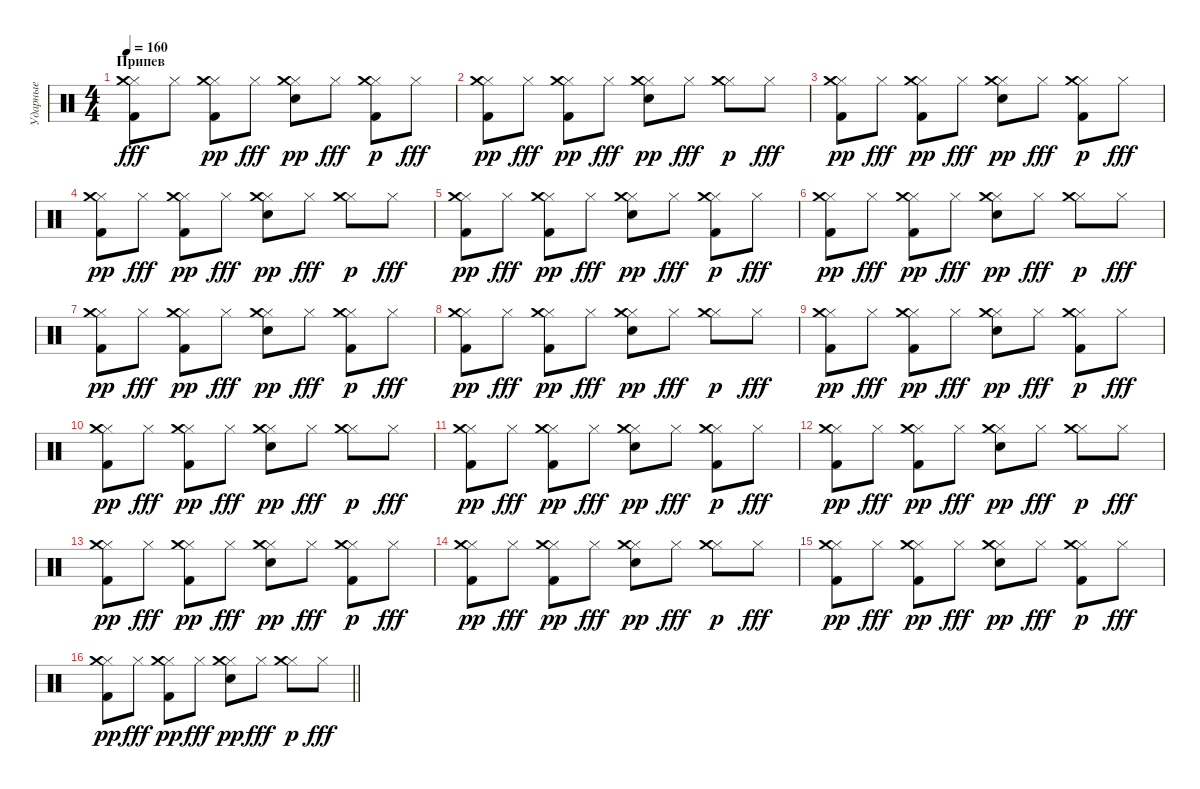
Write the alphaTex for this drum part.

\track ("Ударные" "Ударные") {instrument percussion}
\staff {score}
\articulation defaults
\ts (4 4)
\section ("" "Припев")
\tempo 160
\clef neutral
\ks c
("Hi-Hat (closed)" "Kick (hit) 2" "Crash medium (hit)").8{dy fff} "Hi-Hat (closed)".8 ("Hi-Hat (closed)" "Kick (hit) 2" "Crash medium (hit)").8{dy pp} "Hi-Hat (closed)".8{dy fff} ("Hi-Hat (closed)" "Snare (hit) 2" "Crash medium (hit)").8{dy pp} "Hi-Hat (closed)".8{dy fff} ("Hi-Hat (closed)" "Kick (hit) 2" "Crash medium (hit)").8{dy p} "Hi-Hat (closed)".8{dy fff} |
("Hi-Hat (closed)" "Kick (hit) 2" "Crash medium (hit)").8{dy pp} "Hi-Hat (closed)".8{dy fff} ("Hi-Hat (closed)" "Kick (hit) 2" "Crash medium (hit)").8{dy pp} "Hi-Hat (closed)".8{dy fff} ("Hi-Hat (closed)" "Snare (hit) 2" "Crash medium (hit)").8{dy pp} "Hi-Hat (closed)".8{dy fff} ("Hi-Hat (closed)" "Crash medium (hit)").8{dy p} "Hi-Hat (closed)".8{dy fff} |
("Hi-Hat (closed)" "Kick (hit) 2" "Crash medium (hit)").8{dy pp} "Hi-Hat (closed)".8{dy fff} ("Hi-Hat (closed)" "Kick (hit) 2" "Crash medium (hit)").8{dy pp} "Hi-Hat (closed)".8{dy fff} ("Hi-Hat (closed)" "Snare (hit) 2" "Crash medium (hit)").8{dy pp} "Hi-Hat (closed)".8{dy fff} ("Hi-Hat (closed)" "Kick (hit) 2" "Crash medium (hit)").8{dy p} "Hi-Hat (closed)".8{dy fff} |
("Hi-Hat (closed)" "Kick (hit) 2" "Crash medium (hit)").8{dy pp} "Hi-Hat (closed)".8{dy fff} ("Hi-Hat (closed)" "Kick (hit) 2" "Crash medium (hit)").8{dy pp} "Hi-Hat (closed)".8{dy fff} ("Hi-Hat (closed)" "Snare (hit) 2" "Crash medium (hit)").8{dy pp} "Hi-Hat (closed)".8{dy fff} ("Hi-Hat (closed)" "Crash medium (hit)").8{dy p} "Hi-Hat (closed)".8{dy fff} |
("Hi-Hat (closed)" "Kick (hit) 2" "Crash medium (hit)").8{dy pp} "Hi-Hat (closed)".8{dy fff} ("Hi-Hat (closed)" "Kick (hit) 2" "Crash medium (hit)").8{dy pp} "Hi-Hat (closed)".8{dy fff} ("Hi-Hat (closed)" "Snare (hit) 2" "Crash medium (hit)").8{dy pp} "Hi-Hat (closed)".8{dy fff} ("Hi-Hat (closed)" "Kick (hit) 2" "Crash medium (hit)").8{dy p} "Hi-Hat (closed)".8{dy fff} |
("Hi-Hat (closed)" "Kick (hit) 2" "Crash medium (hit)").8{dy pp} "Hi-Hat (closed)".8{dy fff} ("Hi-Hat (closed)" "Kick (hit) 2" "Crash medium (hit)").8{dy pp} "Hi-Hat (closed)".8{dy fff} ("Hi-Hat (closed)" "Snare (hit) 2" "Crash medium (hit)").8{dy pp} "Hi-Hat (closed)".8{dy fff} ("Hi-Hat (closed)" "Crash medium (hit)").8{dy p} "Hi-Hat (closed)".8{dy fff} |
("Hi-Hat (closed)" "Kick (hit) 2" "Crash medium (hit)").8{dy pp} "Hi-Hat (closed)".8{dy fff} ("Hi-Hat (closed)" "Kick (hit) 2" "Crash medium (hit)").8{dy pp} "Hi-Hat (closed)".8{dy fff} ("Hi-Hat (closed)" "Snare (hit) 2" "Crash medium (hit)").8{dy pp} "Hi-Hat (closed)".8{dy fff} ("Hi-Hat (closed)" "Kick (hit) 2" "Crash medium (hit)").8{dy p} "Hi-Hat (closed)".8{dy fff} |
("Hi-Hat (closed)" "Kick (hit) 2" "Crash medium (hit)").8{dy pp} "Hi-Hat (closed)".8{dy fff} ("Hi-Hat (closed)" "Kick (hit) 2" "Crash medium (hit)").8{dy pp} "Hi-Hat (closed)".8{dy fff} ("Hi-Hat (closed)" "Snare (hit) 2" "Crash medium (hit)").8{dy pp} "Hi-Hat (closed)".8{dy fff} ("Hi-Hat (closed)" "Crash medium (hit)").8{dy p} "Hi-Hat (closed)".8{dy fff} |
("Hi-Hat (closed)" "Kick (hit) 2" "Crash medium (hit)").8{dy pp} "Hi-Hat (closed)".8{dy fff} ("Hi-Hat (closed)" "Kick (hit) 2" "Crash medium (hit)").8{dy pp} "Hi-Hat (closed)".8{dy fff} ("Hi-Hat (closed)" "Snare (hit) 2" "Crash medium (hit)").8{dy pp} "Hi-Hat (closed)".8{dy fff} ("Hi-Hat (closed)" "Kick (hit) 2" "Crash medium (hit)").8{dy p} "Hi-Hat (closed)".8{dy fff} |
("Hi-Hat (closed)" "Kick (hit) 2" "Crash medium (hit)").8{dy pp} "Hi-Hat (closed)".8{dy fff} ("Hi-Hat (closed)" "Kick (hit) 2" "Crash medium (hit)").8{dy pp} "Hi-Hat (closed)".8{dy fff} ("Hi-Hat (closed)" "Snare (hit) 2" "Crash medium (hit)").8{dy pp} "Hi-Hat (closed)".8{dy fff} ("Hi-Hat (closed)" "Crash medium (hit)").8{dy p} "Hi-Hat (closed)".8{dy fff} |
("Hi-Hat (closed)" "Kick (hit) 2" "Crash medium (hit)").8{dy pp} "Hi-Hat (closed)".8{dy fff} ("Hi-Hat (closed)" "Kick (hit) 2" "Crash medium (hit)").8{dy pp} "Hi-Hat (closed)".8{dy fff} ("Hi-Hat (closed)" "Snare (hit) 2" "Crash medium (hit)").8{dy pp} "Hi-Hat (closed)".8{dy fff} ("Hi-Hat (closed)" "Kick (hit) 2" "Crash medium (hit)").8{dy p} "Hi-Hat (closed)".8{dy fff} |
("Hi-Hat (closed)" "Kick (hit) 2" "Crash medium (hit)").8{dy pp} "Hi-Hat (closed)".8{dy fff} ("Hi-Hat (closed)" "Kick (hit) 2" "Crash medium (hit)").8{dy pp} "Hi-Hat (closed)".8{dy fff} ("Hi-Hat (closed)" "Snare (hit) 2" "Crash medium (hit)").8{dy pp} "Hi-Hat (closed)".8{dy fff} ("Hi-Hat (closed)" "Crash medium (hit)").8{dy p} "Hi-Hat (closed)".8{dy fff} |
("Hi-Hat (closed)" "Kick (hit) 2" "Crash medium (hit)").8{dy pp} "Hi-Hat (closed)".8{dy fff} ("Hi-Hat (closed)" "Kick (hit) 2" "Crash medium (hit)").8{dy pp} "Hi-Hat (closed)".8{dy fff} ("Hi-Hat (closed)" "Snare (hit) 2" "Crash medium (hit)").8{dy pp} "Hi-Hat (closed)".8{dy fff} ("Hi-Hat (closed)" "Kick (hit) 2" "Crash medium (hit)").8{dy p} "Hi-Hat (closed)".8{dy fff} |
("Hi-Hat (closed)" "Kick (hit) 2" "Crash medium (hit)").8{dy pp} "Hi-Hat (closed)".8{dy fff} ("Hi-Hat (closed)" "Kick (hit) 2" "Crash medium (hit)").8{dy pp} "Hi-Hat (closed)".8{dy fff} ("Hi-Hat (closed)" "Snare (hit) 2" "Crash medium (hit)").8{dy pp} "Hi-Hat (closed)".8{dy fff} ("Hi-Hat (closed)" "Crash medium (hit)").8{dy p} "Hi-Hat (closed)".8{dy fff} |
("Hi-Hat (closed)" "Kick (hit) 2" "Crash medium (hit)").8{dy pp} "Hi-Hat (closed)".8{dy fff} ("Hi-Hat (closed)" "Kick (hit) 2" "Crash medium (hit)").8{dy pp} "Hi-Hat (closed)".8{dy fff} ("Hi-Hat (closed)" "Snare (hit) 2" "Crash medium (hit)").8{dy pp} "Hi-Hat (closed)".8{dy fff} ("Hi-Hat (closed)" "Kick (hit) 2" "Crash medium (hit)").8{dy p} "Hi-Hat (closed)".8{dy fff} |
\barLineRight lightlight
("Hi-Hat (closed)" "Kick (hit) 2" "Crash medium (hit)").8{dy pp} "Hi-Hat (closed)".8{dy fff} ("Hi-Hat (closed)" "Kick (hit) 2" "Crash medium (hit)").8{dy pp} "Hi-Hat (closed)".8{dy fff} ("Hi-Hat (closed)" "Snare (hit) 2" "Crash medium (hit)").8{dy pp} "Hi-Hat (closed)".8{dy fff} ("Hi-Hat (closed)" "Crash medium (hit)").8{dy p} "Hi-Hat (closed)".8{dy fff}
